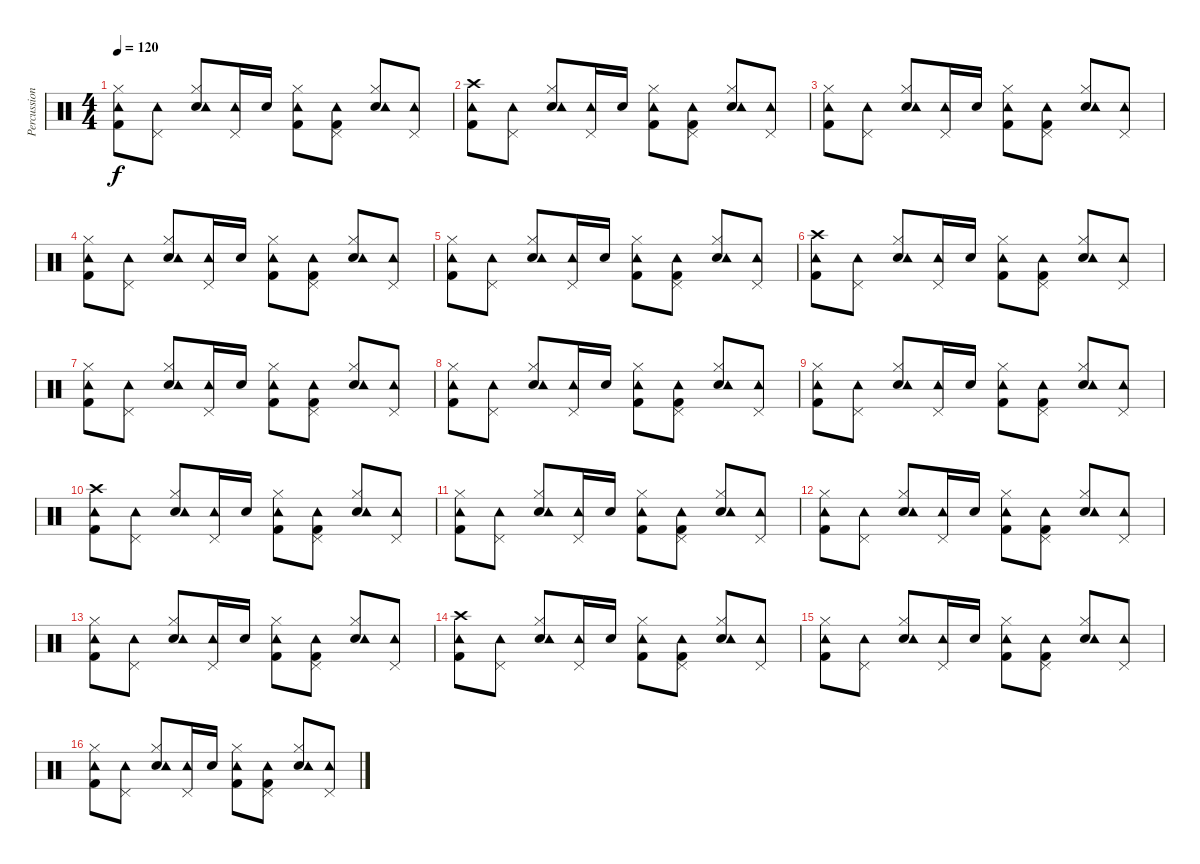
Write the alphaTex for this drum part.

\track ("Percussion" "Percussion") {instrument percussion}
\staff {score}
\articulation defaults
\ts (4 4)
\tempo 120
\clef neutral
\ks c
("Kick (hit) 2" "Tambourine (hit)" "Hi-Hat (closed)").8{dy f} ("Tambourine (hit)" "Pedal Hi-Hat (hit)").8 ("Electric Snare (hit)" "Tambourine (hit)" "Hi-Hat (closed)").8 ("Tambourine (hit)" "Pedal Hi-Hat (hit)").16 "Electric Snare (hit)".16 ("Kick (hit) 2" "Tambourine (hit)" "Hi-Hat (closed)").8 ("Kick (hit) 2" "Tambourine (hit)" "Pedal Hi-Hat (hit)").8 ("Electric Snare (hit)" "Tambourine (hit)" "Hi-Hat (closed)").8 ("Tambourine (hit)" "Pedal Hi-Hat (hit)").8 |
("Kick (hit) 2" "Tambourine (hit)" "Crash high (hit)").8 ("Tambourine (hit)" "Pedal Hi-Hat (hit)").8 ("Electric Snare (hit)" "Tambourine (hit)" "Hi-Hat (closed)").8 ("Tambourine (hit)" "Pedal Hi-Hat (hit)").16 "Electric Snare (hit)".16 ("Kick (hit) 2" "Tambourine (hit)" "Hi-Hat (closed)").8 ("Kick (hit) 2" "Tambourine (hit)" "Pedal Hi-Hat (hit)").8 ("Electric Snare (hit)" "Tambourine (hit)" "Hi-Hat (closed)").8 ("Tambourine (hit)" "Pedal Hi-Hat (hit)").8 |
("Kick (hit) 2" "Tambourine (hit)" "Hi-Hat (closed)").8 ("Tambourine (hit)" "Pedal Hi-Hat (hit)").8 ("Electric Snare (hit)" "Tambourine (hit)" "Hi-Hat (closed)").8 ("Tambourine (hit)" "Pedal Hi-Hat (hit)").16 "Electric Snare (hit)".16 ("Kick (hit) 2" "Tambourine (hit)" "Hi-Hat (closed)").8 ("Kick (hit) 2" "Tambourine (hit)" "Pedal Hi-Hat (hit)").8 ("Electric Snare (hit)" "Tambourine (hit)" "Hi-Hat (closed)").8 ("Tambourine (hit)" "Pedal Hi-Hat (hit)").8 |
("Kick (hit) 2" "Tambourine (hit)" "Hi-Hat (closed)").8 ("Tambourine (hit)" "Pedal Hi-Hat (hit)").8 ("Electric Snare (hit)" "Tambourine (hit)" "Hi-Hat (closed)").8 ("Tambourine (hit)" "Pedal Hi-Hat (hit)").16 "Electric Snare (hit)".16 ("Kick (hit) 2" "Tambourine (hit)" "Hi-Hat (closed)").8 ("Kick (hit) 2" "Tambourine (hit)" "Pedal Hi-Hat (hit)").8 ("Electric Snare (hit)" "Tambourine (hit)" "Hi-Hat (closed)").8 ("Tambourine (hit)" "Pedal Hi-Hat (hit)").8 |
("Kick (hit) 2" "Tambourine (hit)" "Hi-Hat (closed)").8 ("Tambourine (hit)" "Pedal Hi-Hat (hit)").8 ("Electric Snare (hit)" "Tambourine (hit)" "Hi-Hat (closed)").8 ("Tambourine (hit)" "Pedal Hi-Hat (hit)").16 "Electric Snare (hit)".16 ("Kick (hit) 2" "Tambourine (hit)" "Hi-Hat (closed)").8 ("Kick (hit) 2" "Tambourine (hit)" "Pedal Hi-Hat (hit)").8 ("Electric Snare (hit)" "Tambourine (hit)" "Hi-Hat (closed)").8 ("Tambourine (hit)" "Pedal Hi-Hat (hit)").8 |
("Kick (hit) 2" "Tambourine (hit)" "Crash high (hit)").8 ("Tambourine (hit)" "Pedal Hi-Hat (hit)").8 ("Electric Snare (hit)" "Tambourine (hit)" "Hi-Hat (closed)").8 ("Tambourine (hit)" "Pedal Hi-Hat (hit)").16 "Electric Snare (hit)".16 ("Kick (hit) 2" "Tambourine (hit)" "Hi-Hat (closed)").8 ("Kick (hit) 2" "Tambourine (hit)" "Pedal Hi-Hat (hit)").8 ("Electric Snare (hit)" "Tambourine (hit)" "Hi-Hat (closed)").8 ("Tambourine (hit)" "Pedal Hi-Hat (hit)").8 |
("Kick (hit) 2" "Tambourine (hit)" "Hi-Hat (closed)").8 ("Tambourine (hit)" "Pedal Hi-Hat (hit)").8 ("Electric Snare (hit)" "Tambourine (hit)" "Hi-Hat (closed)").8 ("Tambourine (hit)" "Pedal Hi-Hat (hit)").16 "Electric Snare (hit)".16 ("Kick (hit) 2" "Tambourine (hit)" "Hi-Hat (closed)").8 ("Kick (hit) 2" "Tambourine (hit)" "Pedal Hi-Hat (hit)").8 ("Electric Snare (hit)" "Tambourine (hit)" "Hi-Hat (closed)").8 ("Tambourine (hit)" "Pedal Hi-Hat (hit)").8 |
("Kick (hit) 2" "Tambourine (hit)" "Hi-Hat (closed)").8 ("Tambourine (hit)" "Pedal Hi-Hat (hit)").8 ("Electric Snare (hit)" "Tambourine (hit)" "Hi-Hat (closed)").8 ("Tambourine (hit)" "Pedal Hi-Hat (hit)").16 "Electric Snare (hit)".16 ("Kick (hit) 2" "Tambourine (hit)" "Hi-Hat (closed)").8 ("Kick (hit) 2" "Tambourine (hit)" "Pedal Hi-Hat (hit)").8 ("Electric Snare (hit)" "Tambourine (hit)" "Hi-Hat (closed)").8 ("Tambourine (hit)" "Pedal Hi-Hat (hit)").8 |
("Kick (hit) 2" "Tambourine (hit)" "Hi-Hat (closed)").8 ("Tambourine (hit)" "Pedal Hi-Hat (hit)").8 ("Electric Snare (hit)" "Tambourine (hit)" "Hi-Hat (closed)").8 ("Tambourine (hit)" "Pedal Hi-Hat (hit)").16 "Electric Snare (hit)".16 ("Kick (hit) 2" "Tambourine (hit)" "Hi-Hat (closed)").8 ("Kick (hit) 2" "Tambourine (hit)" "Pedal Hi-Hat (hit)").8 ("Electric Snare (hit)" "Tambourine (hit)" "Hi-Hat (closed)").8 ("Tambourine (hit)" "Pedal Hi-Hat (hit)").8 |
("Kick (hit) 2" "Tambourine (hit)" "Crash high (hit)").8 ("Tambourine (hit)" "Pedal Hi-Hat (hit)").8 ("Electric Snare (hit)" "Tambourine (hit)" "Hi-Hat (closed)").8 ("Tambourine (hit)" "Pedal Hi-Hat (hit)").16 "Electric Snare (hit)".16 ("Kick (hit) 2" "Tambourine (hit)" "Hi-Hat (closed)").8 ("Kick (hit) 2" "Tambourine (hit)" "Pedal Hi-Hat (hit)").8 ("Electric Snare (hit)" "Tambourine (hit)" "Hi-Hat (closed)").8 ("Tambourine (hit)" "Pedal Hi-Hat (hit)").8 |
("Kick (hit) 2" "Tambourine (hit)" "Hi-Hat (closed)").8 ("Tambourine (hit)" "Pedal Hi-Hat (hit)").8 ("Electric Snare (hit)" "Tambourine (hit)" "Hi-Hat (closed)").8 ("Tambourine (hit)" "Pedal Hi-Hat (hit)").16 "Electric Snare (hit)".16 ("Kick (hit) 2" "Tambourine (hit)" "Hi-Hat (closed)").8 ("Kick (hit) 2" "Tambourine (hit)" "Pedal Hi-Hat (hit)").8 ("Electric Snare (hit)" "Tambourine (hit)" "Hi-Hat (closed)").8 ("Tambourine (hit)" "Pedal Hi-Hat (hit)").8 |
("Kick (hit) 2" "Tambourine (hit)" "Hi-Hat (closed)").8 ("Tambourine (hit)" "Pedal Hi-Hat (hit)").8 ("Electric Snare (hit)" "Tambourine (hit)" "Hi-Hat (closed)").8 ("Tambourine (hit)" "Pedal Hi-Hat (hit)").16 "Electric Snare (hit)".16 ("Kick (hit) 2" "Tambourine (hit)" "Hi-Hat (closed)").8 ("Kick (hit) 2" "Tambourine (hit)" "Pedal Hi-Hat (hit)").8 ("Electric Snare (hit)" "Tambourine (hit)" "Hi-Hat (closed)").8 ("Tambourine (hit)" "Pedal Hi-Hat (hit)").8 |
("Kick (hit) 2" "Tambourine (hit)" "Hi-Hat (closed)").8 ("Tambourine (hit)" "Pedal Hi-Hat (hit)").8 ("Electric Snare (hit)" "Tambourine (hit)" "Hi-Hat (closed)").8 ("Tambourine (hit)" "Pedal Hi-Hat (hit)").16 "Electric Snare (hit)".16 ("Kick (hit) 2" "Tambourine (hit)" "Hi-Hat (closed)").8 ("Kick (hit) 2" "Tambourine (hit)" "Pedal Hi-Hat (hit)").8 ("Electric Snare (hit)" "Tambourine (hit)" "Hi-Hat (closed)").8 ("Tambourine (hit)" "Pedal Hi-Hat (hit)").8 |
("Kick (hit) 2" "Tambourine (hit)" "Crash high (hit)").8 ("Tambourine (hit)" "Pedal Hi-Hat (hit)").8 ("Electric Snare (hit)" "Tambourine (hit)" "Hi-Hat (closed)").8 ("Tambourine (hit)" "Pedal Hi-Hat (hit)").16 "Electric Snare (hit)".16 ("Kick (hit) 2" "Tambourine (hit)" "Hi-Hat (closed)").8 ("Kick (hit) 2" "Tambourine (hit)" "Pedal Hi-Hat (hit)").8 ("Electric Snare (hit)" "Tambourine (hit)" "Hi-Hat (closed)").8 ("Tambourine (hit)" "Pedal Hi-Hat (hit)").8 |
("Kick (hit) 2" "Tambourine (hit)" "Hi-Hat (closed)").8 ("Tambourine (hit)" "Pedal Hi-Hat (hit)").8 ("Electric Snare (hit)" "Tambourine (hit)" "Hi-Hat (closed)").8 ("Tambourine (hit)" "Pedal Hi-Hat (hit)").16 "Electric Snare (hit)".16 ("Kick (hit) 2" "Tambourine (hit)" "Hi-Hat (closed)").8 ("Kick (hit) 2" "Tambourine (hit)" "Pedal Hi-Hat (hit)").8 ("Electric Snare (hit)" "Tambourine (hit)" "Hi-Hat (closed)").8 ("Tambourine (hit)" "Pedal Hi-Hat (hit)").8 |
("Kick (hit) 2" "Tambourine (hit)" "Hi-Hat (closed)").8 ("Tambourine (hit)" "Pedal Hi-Hat (hit)").8 ("Electric Snare (hit)" "Tambourine (hit)" "Hi-Hat (closed)").8 ("Tambourine (hit)" "Pedal Hi-Hat (hit)").16 "Electric Snare (hit)".16 ("Kick (hit) 2" "Tambourine (hit)" "Hi-Hat (closed)").8 ("Kick (hit) 2" "Tambourine (hit)" "Pedal Hi-Hat (hit)").8 ("Electric Snare (hit)" "Tambourine (hit)" "Hi-Hat (closed)").8 ("Tambourine (hit)" "Pedal Hi-Hat (hit)").8
